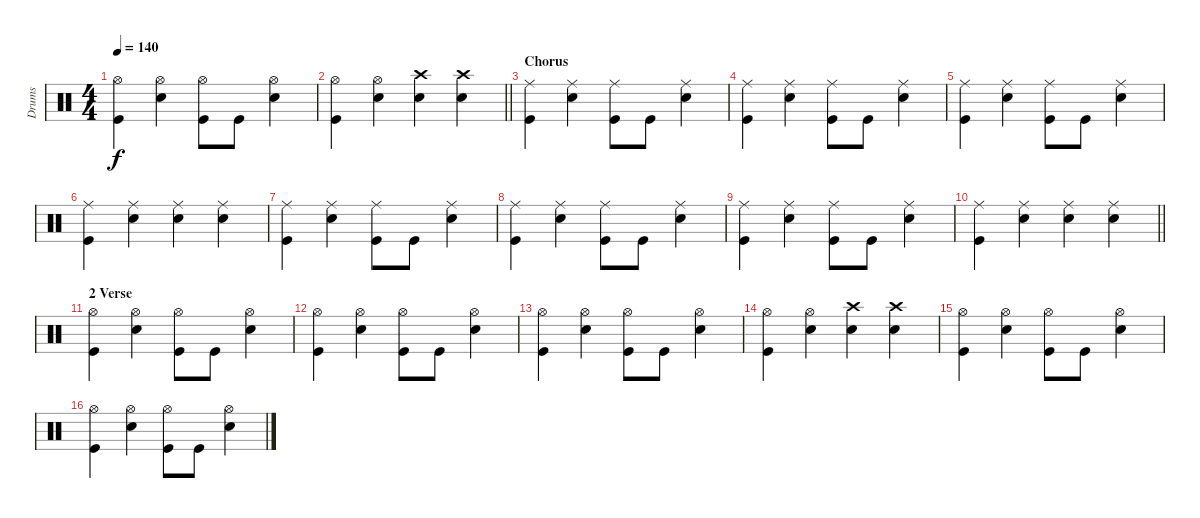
\track ("Drums" "Drums") {instrument percussion}
\staff
\articulation defaults
\ts (4 4)
\tempo 140
\clef neutral
\ks c
("Kick (hit)" "Hi-Hat (open)").4{dy f} ("Snare (hit) 2" "Hi-Hat (open)").4 ("Kick (hit)" "Hi-Hat (open)").8 "Kick (hit)".8 ("Snare (hit) 2" "Hi-Hat (open)").4 |
\barLineRight lightlight
("Kick (hit)" "Hi-Hat (open)").4 ("Snare (hit) 2" "Hi-Hat (open)").4 ("Snare (hit) 2" "Crash high (hit)").4 ("Snare (hit) 2" "Crash high (hit)").4 |
\section ("" "Chorus")
("Kick (hit)" "Ride (middle)").4 ("Snare (hit) 2" "Ride (middle)").4 ("Kick (hit)" "Ride (middle)").8 "Kick (hit)".8 ("Snare (hit) 2" "Ride (middle)").4 |
("Kick (hit)" "Ride (middle)").4 ("Snare (hit) 2" "Ride (middle)").4 ("Kick (hit)" "Ride (middle)").8 "Kick (hit)".8 ("Snare (hit) 2" "Ride (middle)").4 |
("Kick (hit)" "Ride (middle)").4 ("Snare (hit) 2" "Ride (middle)").4 ("Kick (hit)" "Ride (middle)").8 "Kick (hit)".8 ("Snare (hit) 2" "Ride (middle)").4 |
("Kick (hit)" "Ride (middle)").4 ("Snare (hit) 2" "Ride (middle)").4 ("Snare (hit) 2" "Ride (middle)").4 ("Snare (hit) 2" "Ride (middle)").4 |
("Kick (hit)" "Ride (middle)").4 ("Snare (hit) 2" "Ride (middle)").4 ("Kick (hit)" "Ride (middle)").8 "Kick (hit)".8 ("Snare (hit) 2" "Ride (middle)").4 |
("Kick (hit)" "Ride (middle)").4 ("Snare (hit) 2" "Ride (middle)").4 ("Kick (hit)" "Ride (middle)").8 "Kick (hit)".8 ("Snare (hit) 2" "Ride (middle)").4 |
("Kick (hit)" "Ride (middle)").4 ("Snare (hit) 2" "Ride (middle)").4 ("Kick (hit)" "Ride (middle)").8 "Kick (hit)".8 ("Snare (hit) 2" "Ride (middle)").4 |
\barLineRight lightlight
("Kick (hit)" "Ride (middle)").4 ("Snare (hit) 2" "Ride (middle)").4 ("Snare (hit) 2" "Ride (middle)").4 ("Snare (hit) 2" "Ride (middle)").4 |
\section ("" "2 Verse")
("Kick (hit)" "Hi-Hat (open)").4 ("Snare (hit) 2" "Hi-Hat (open)").4 ("Kick (hit)" "Hi-Hat (open)").8 "Kick (hit)".8 ("Snare (hit) 2" "Hi-Hat (open)").4 |
("Kick (hit)" "Hi-Hat (open)").4 ("Snare (hit) 2" "Hi-Hat (open)").4 ("Kick (hit)" "Hi-Hat (open)").8 "Kick (hit)".8 ("Snare (hit) 2" "Hi-Hat (open)").4 |
("Kick (hit)" "Hi-Hat (open)").4 ("Snare (hit) 2" "Hi-Hat (open)").4 ("Kick (hit)" "Hi-Hat (open)").8 "Kick (hit)".8 ("Snare (hit) 2" "Hi-Hat (open)").4 |
("Kick (hit)" "Hi-Hat (open)").4 ("Snare (hit) 2" "Hi-Hat (open)").4 ("Snare (hit) 2" "Crash high (hit)").4 ("Snare (hit) 2" "Crash high (hit)").4 |
("Kick (hit)" "Hi-Hat (open)").4 ("Snare (hit) 2" "Hi-Hat (open)").4 ("Kick (hit)" "Hi-Hat (open)").8 "Kick (hit)".8 ("Snare (hit) 2" "Hi-Hat (open)").4 |
("Kick (hit)" "Hi-Hat (open)").4 ("Snare (hit) 2" "Hi-Hat (open)").4 ("Kick (hit)" "Hi-Hat (open)").8 "Kick (hit)".8 ("Snare (hit) 2" "Hi-Hat (open)").4
